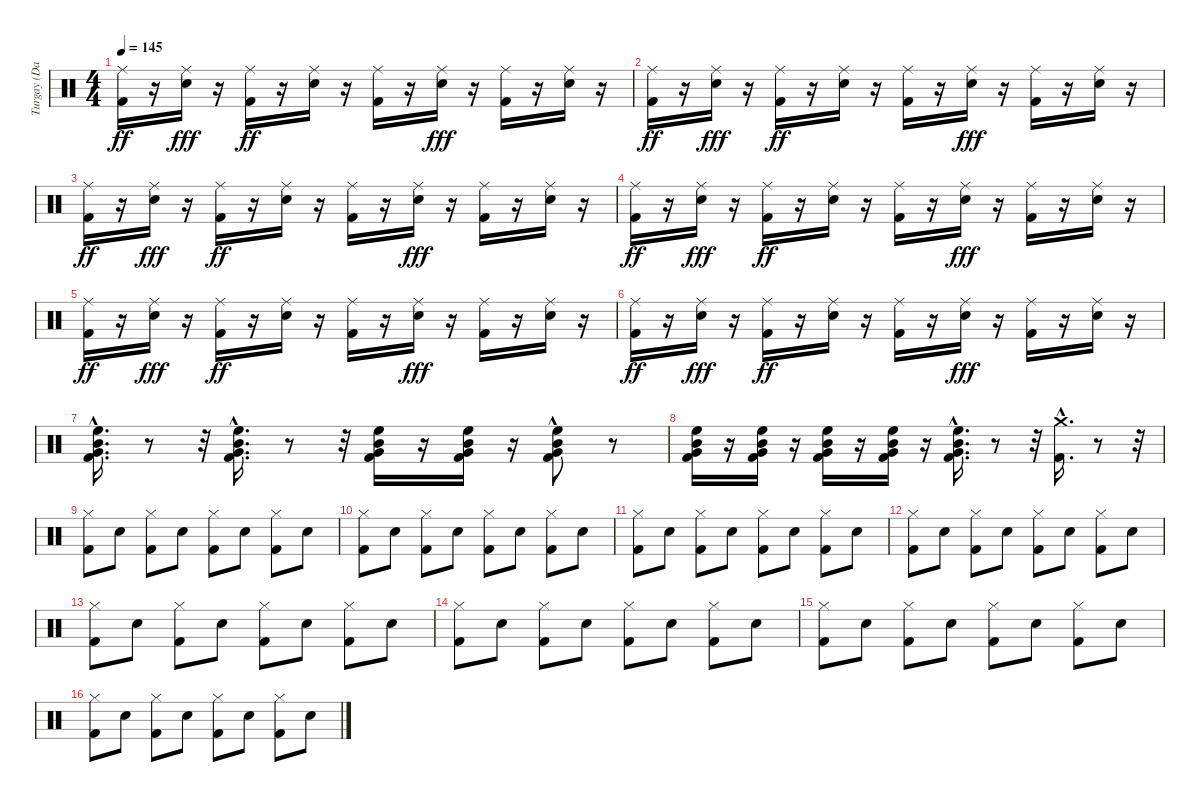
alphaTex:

\track ("Turgay (Davul)" "Turgay (Da") {instrument percussion}
\staff {score}
\articulation defaults
\ts (4 4)
\tempo 145
\clef neutral
\ks c
("Ride (middle)" "Kick (hit) 2").16{dy ff} r.16 ("Electric Snare (hit)" "Ride (middle)").16{dy fff} r.16 ("Kick (hit) 2" "Ride (middle)").16{dy ff} r.16 ("Electric Snare (hit)" "Ride (middle)").16 r.16 ("Kick (hit) 2" "Ride (middle)").16 r.16 ("Electric Snare (hit)" "Ride (middle)").16{dy fff} r.16 ("Kick (hit) 2" "Ride (middle)").16 r.16 ("Electric Snare (hit)" "Ride (middle)").16 r.16 |
("Ride (middle)" "Kick (hit) 2").16{dy ff} r.16 ("Electric Snare (hit)" "Ride (middle)").16{dy fff} r.16 ("Kick (hit) 2" "Ride (middle)").16{dy ff} r.16 ("Electric Snare (hit)" "Ride (middle)").16 r.16 ("Kick (hit) 2" "Ride (middle)").16 r.16 ("Electric Snare (hit)" "Ride (middle)").16{dy fff} r.16 ("Kick (hit) 2" "Ride (middle)").16 r.16 ("Electric Snare (hit)" "Ride (middle)").16 r.16 |
("Ride (middle)" "Kick (hit) 2").16{dy ff} r.16 ("Electric Snare (hit)" "Ride (middle)").16{dy fff} r.16 ("Kick (hit) 2" "Ride (middle)").16{dy ff} r.16 ("Electric Snare (hit)" "Ride (middle)").16 r.16 ("Kick (hit) 2" "Ride (middle)").16 r.16 ("Electric Snare (hit)" "Ride (middle)").16{dy fff} r.16 ("Kick (hit) 2" "Ride (middle)").16 r.16 ("Electric Snare (hit)" "Ride (middle)").16 r.16 |
("Ride (middle)" "Kick (hit) 2").16{dy ff} r.16 ("Electric Snare (hit)" "Ride (middle)").16{dy fff} r.16 ("Kick (hit) 2" "Ride (middle)").16{dy ff} r.16 ("Electric Snare (hit)" "Ride (middle)").16 r.16 ("Kick (hit) 2" "Ride (middle)").16 r.16 ("Electric Snare (hit)" "Ride (middle)").16{dy fff} r.16 ("Kick (hit) 2" "Ride (middle)").16 r.16 ("Electric Snare (hit)" "Ride (middle)").16 r.16 |
("Ride (middle)" "Kick (hit) 2").16{dy ff} r.16 ("Electric Snare (hit)" "Ride (middle)").16{dy fff} r.16 ("Kick (hit) 2" "Ride (middle)").16{dy ff} r.16 ("Electric Snare (hit)" "Ride (middle)").16 r.16 ("Kick (hit) 2" "Ride (middle)").16 r.16 ("Electric Snare (hit)" "Ride (middle)").16{dy fff} r.16 ("Kick (hit) 2" "Ride (middle)").16 r.16 ("Electric Snare (hit)" "Ride (middle)").16 r.16 |
("Ride (middle)" "Kick (hit) 2").16{dy ff} r.16 ("Electric Snare (hit)" "Ride (middle)").16{dy fff} r.16 ("Kick (hit) 2" "Ride (middle)").16{dy ff} r.16 ("Electric Snare (hit)" "Ride (middle)").16 r.16 ("Kick (hit) 2" "Ride (middle)").16 r.16 ("Electric Snare (hit)" "Ride (middle)").16{dy fff} r.16 ("Kick (hit) 2" "Ride (middle)").16 r.16 ("Electric Snare (hit)" "Ride (middle)").16 r.16 |
("Mid Tom (hit)" "Very Low Tom (hit)" "High Floor Tom (hit)"{hac} "Kick (hit) 2").16{d} r.8 r.32 ("Kick (hit) 2" "Mid Tom (hit)" "Very Low Tom (hit)"{hac} "High Floor Tom (hit)"{hac}).16{d} r.8 r.32 ("Kick (hit) 2" "Mid Tom (hit)" "High Floor Tom (hit)" "Very Low Tom (hit)").16 r.16 ("Kick (hit) 2" "Mid Tom (hit)" "Very Low Tom (hit)" "High Floor Tom (hit)").16 r.16 ("Kick (hit) 2"{hac} "Very Low Tom (hit)" "Mid Tom (hit)"{hac} "High Floor Tom (hit)"{hac}).8 r.8 |
("Kick (hit) 2" "Very Low Tom (hit)" "Mid Tom (hit)" "High Floor Tom (hit)").16 r.16 ("Kick (hit) 2" "Very Low Tom (hit)" "Mid Tom (hit)" "High Floor Tom (hit)").16 r.16 ("Kick (hit) 2" "Very Low Tom (hit)" "Mid Tom (hit)" "High Floor Tom (hit)").16 r.16 ("Kick (hit) 2" "Very Low Tom (hit)" "High Floor Tom (hit)" "Mid Tom (hit)").16 r.16 ("Very Low Tom (hit)"{hac} "Kick (hit) 2"{hac} "Mid Tom (hit)"{hac} "High Floor Tom (hit)"{hac}).16{d} r.8 r.32 ("Kick (hit) 2"{hac} "Crash medium (hit)").16{d} r.8 r.32 |
("Hi-Hat (closed)" "Kick (hit) 2").8 "Electric Snare (hit)".8 ("Hi-Hat (closed)" "Kick (hit) 2").8 "Electric Snare (hit)".8 ("Hi-Hat (closed)" "Kick (hit) 2").8 "Electric Snare (hit)".8 ("Hi-Hat (closed)" "Kick (hit) 2").8 "Electric Snare (hit)".8 |
("Kick (hit) 2" "Hi-Hat (closed)").8 "Electric Snare (hit)".8 ("Kick (hit) 2" "Hi-Hat (closed)").8 "Electric Snare (hit)".8 ("Kick (hit) 2" "Hi-Hat (closed)").8 "Electric Snare (hit)".8 ("Kick (hit) 2" "Hi-Hat (closed)").8 "Electric Snare (hit)".8 |
("Hi-Hat (closed)" "Kick (hit) 2").8 "Electric Snare (hit)".8 ("Hi-Hat (closed)" "Kick (hit) 2").8 "Electric Snare (hit)".8 ("Hi-Hat (closed)" "Kick (hit) 2").8 "Electric Snare (hit)".8 ("Hi-Hat (closed)" "Kick (hit) 2").8 "Electric Snare (hit)".8 |
("Kick (hit) 2" "Hi-Hat (closed)").8 "Electric Snare (hit)".8 ("Kick (hit) 2" "Hi-Hat (closed)").8 "Electric Snare (hit)".8 ("Kick (hit) 2" "Hi-Hat (closed)").8 "Electric Snare (hit)".8 ("Kick (hit) 2" "Hi-Hat (closed)").8 "Electric Snare (hit)".8 |
("Kick (hit) 2" "Hi-Hat (closed)").8 "Electric Snare (hit)".8 ("Kick (hit) 2" "Hi-Hat (closed)").8 "Electric Snare (hit)".8 ("Kick (hit) 2" "Hi-Hat (closed)").8 "Electric Snare (hit)".8 ("Kick (hit) 2" "Hi-Hat (closed)").8 "Electric Snare (hit)".8 |
("Hi-Hat (closed)" "Kick (hit) 2").8 "Electric Snare (hit)".8 ("Hi-Hat (closed)" "Kick (hit) 2").8 "Electric Snare (hit)".8 ("Hi-Hat (closed)" "Kick (hit) 2").8 "Electric Snare (hit)".8 ("Hi-Hat (closed)" "Kick (hit) 2").8 "Electric Snare (hit)".8 |
("Hi-Hat (closed)" "Kick (hit) 2").8 "Electric Snare (hit)".8 ("Hi-Hat (closed)" "Kick (hit) 2").8 "Electric Snare (hit)".8 ("Hi-Hat (closed)" "Kick (hit) 2").8 "Electric Snare (hit)".8 ("Hi-Hat (closed)" "Kick (hit) 2").8 "Electric Snare (hit)".8 |
("Hi-Hat (closed)" "Kick (hit) 2").8 "Electric Snare (hit)".8 ("Hi-Hat (closed)" "Kick (hit) 2").8 "Electric Snare (hit)".8 ("Hi-Hat (closed)" "Kick (hit) 2").8 "Electric Snare (hit)".8 ("Hi-Hat (closed)" "Kick (hit) 2").8 "Electric Snare (hit)".8
